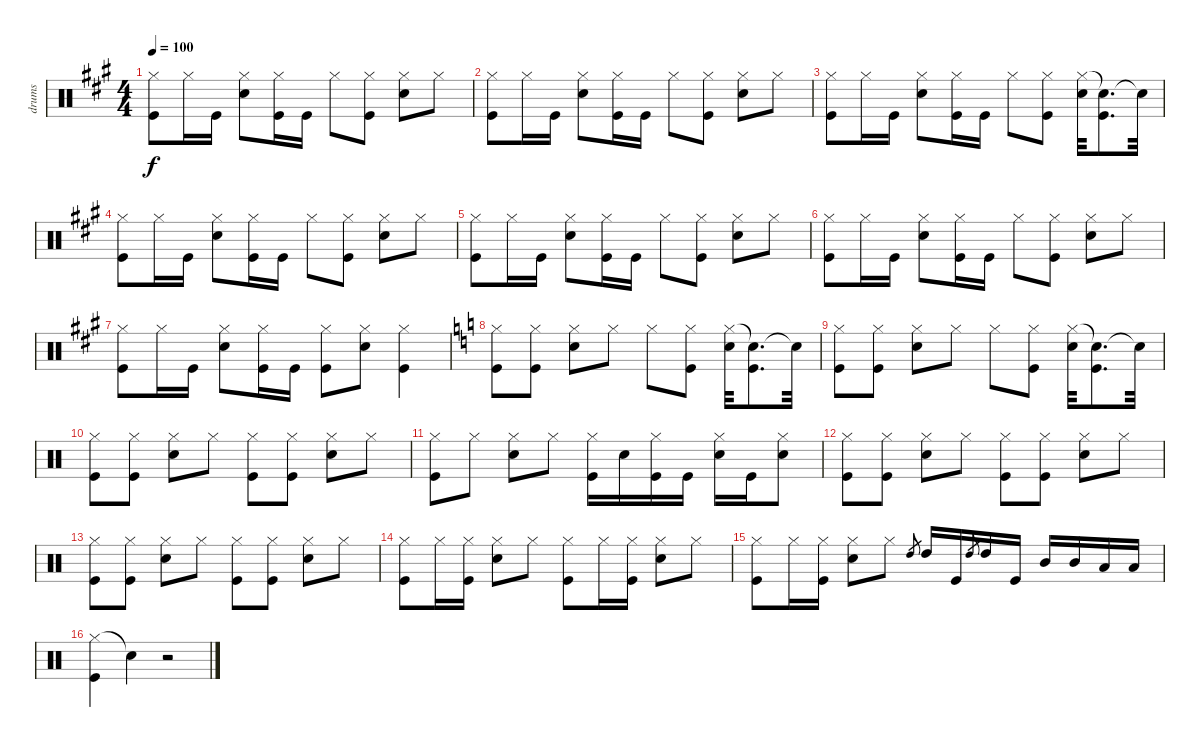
\track ("drums" "drums") {instrument percussion}
\staff {score}
\articulation defaults
\ts (4 4)
\tempo 100
\clef neutral
\ks f#minor
("Hi-Hat (closed)" "Kick (hit)").8{dy f} "Hi-Hat (closed)".16 "Kick (hit)".16 ("Hi-Hat (closed)" "Snare (hit) 2").8 ("Hi-Hat (closed)" "Kick (hit)").16 "Kick (hit)".16 "Hi-Hat (closed)".8 ("Hi-Hat (closed)" "Kick (hit)").8 ("Hi-Hat (closed)" "Snare (hit) 2").8 "Hi-Hat (closed)".8 |
("Hi-Hat (closed)" "Kick (hit)").8 "Hi-Hat (closed)".16 "Kick (hit)".16 ("Hi-Hat (closed)" "Snare (hit) 2").8 ("Hi-Hat (closed)" "Kick (hit)").16 "Kick (hit)".16 "Hi-Hat (closed)".8 ("Hi-Hat (closed)" "Kick (hit)").8 ("Hi-Hat (closed)" "Snare (hit) 2").8 "Hi-Hat (closed)".8 |
("Hi-Hat (closed)" "Kick (hit)").8 "Hi-Hat (closed)".16 "Kick (hit)".16 ("Hi-Hat (closed)" "Snare (hit) 2").8 ("Hi-Hat (closed)" "Kick (hit)").16 "Kick (hit)".16 "Hi-Hat (closed)".8 ("Hi-Hat (closed)" "Kick (hit)").8 ("Hi-Hat (closed)" "Snare (hit) 2").32 ("Snare (hit)"{t} "Kick (hit)").8{d} "Snare (hit)"{t}.32 |
("Hi-Hat (closed)" "Kick (hit)").8 "Hi-Hat (closed)".16 "Kick (hit)".16 ("Hi-Hat (closed)" "Snare (hit) 2").8 ("Hi-Hat (closed)" "Kick (hit)").16 "Kick (hit)".16 "Hi-Hat (closed)".8 ("Hi-Hat (closed)" "Kick (hit)").8 ("Hi-Hat (closed)" "Snare (hit) 2").8 "Hi-Hat (closed)".8 |
("Hi-Hat (closed)" "Kick (hit)").8 "Hi-Hat (closed)".16 "Kick (hit)".16 ("Hi-Hat (closed)" "Snare (hit) 2").8 ("Hi-Hat (closed)" "Kick (hit)").16 "Kick (hit)".16 "Hi-Hat (closed)".8 ("Hi-Hat (closed)" "Kick (hit)").8 ("Hi-Hat (closed)" "Snare (hit) 2").8 "Hi-Hat (closed)".8 |
("Hi-Hat (closed)" "Kick (hit)").8 "Hi-Hat (closed)".16 "Kick (hit)".16 ("Hi-Hat (closed)" "Snare (hit) 2").8 ("Hi-Hat (closed)" "Kick (hit)").16 "Kick (hit)".16 "Hi-Hat (closed)".8 ("Hi-Hat (closed)" "Kick (hit)").8 ("Hi-Hat (closed)" "Snare (hit) 2").8 "Hi-Hat (closed)".8 |
("Hi-Hat (closed)" "Kick (hit)").8 "Hi-Hat (closed)".16 "Kick (hit)".16 ("Hi-Hat (closed)" "Snare (hit) 2").8 ("Hi-Hat (closed)" "Kick (hit)").16 "Kick (hit)".16 ("Hi-Hat (closed)" "Kick (hit)").8 ("Hi-Hat (closed)" "Snare (hit) 2").8 ("Hi-Hat (closed)" "Kick (hit)").4 |
\ks aminor
("Hi-Hat (closed)" "Kick (hit)").8 ("Hi-Hat (closed)" "Kick (hit)").8 ("Hi-Hat (closed)" "Snare (hit) 2").8 "Hi-Hat (closed)".8 "Hi-Hat (closed)".8 ("Hi-Hat (closed)" "Kick (hit)").8 ("Hi-Hat (closed)" "Snare (hit) 2").32 ("Snare (hit)"{t} "Kick (hit)").8{d} "Snare (hit)"{t}.32 |
("Hi-Hat (closed)" "Kick (hit)").8 ("Hi-Hat (closed)" "Kick (hit)").8 ("Hi-Hat (closed)" "Snare (hit) 2").8 "Hi-Hat (closed)".8 "Hi-Hat (closed)".8 ("Hi-Hat (closed)" "Kick (hit)").8 ("Hi-Hat (closed)" "Snare (hit) 2").32 ("Snare (hit)"{t} "Kick (hit)").8{d} "Snare (hit)"{t}.32 |
("Hi-Hat (closed)" "Kick (hit)").8 ("Hi-Hat (closed)" "Kick (hit)").8 ("Hi-Hat (closed)" "Snare (hit) 2").8 "Hi-Hat (closed)".8 ("Hi-Hat (closed)" "Kick (hit)").8 ("Hi-Hat (closed)" "Kick (hit)").8 ("Hi-Hat (closed)" "Snare (hit) 2").8 "Hi-Hat (closed)".8 |
("Hi-Hat (closed)" "Kick (hit)").8 "Hi-Hat (closed)".8 ("Hi-Hat (closed)" "Snare (hit) 2").8 "Hi-Hat (closed)".8 ("Hi-Hat (closed)" "Kick (hit)").16 "Snare (hit) 2".16 ("Hi-Hat (closed)" "Kick (hit)").16 "Kick (hit)".16 ("Hi-Hat (closed)" "Snare (hit) 2").16 "Kick (hit)".16 ("Hi-Hat (closed)" "Snare (hit) 2").8 |
("Hi-Hat (closed)" "Kick (hit)").8 ("Hi-Hat (closed)" "Kick (hit)").8 ("Hi-Hat (closed)" "Snare (hit) 2").8 "Hi-Hat (closed)".8 ("Hi-Hat (closed)" "Kick (hit)").8 ("Hi-Hat (closed)" "Kick (hit)").8 ("Hi-Hat (closed)" "Snare (hit) 2").8 "Hi-Hat (closed)".8 |
("Hi-Hat (closed)" "Kick (hit)").8 ("Hi-Hat (closed)" "Kick (hit)").8 ("Hi-Hat (closed)" "Snare (hit) 2").8 "Hi-Hat (closed)".8 ("Hi-Hat (closed)" "Kick (hit)").8 ("Hi-Hat (closed)" "Kick (hit)").8 ("Hi-Hat (closed)" "Snare (hit) 2").8 "Hi-Hat (closed)".8 |
("Hi-Hat (closed)" "Kick (hit)").8 "Hi-Hat (closed)".16 ("Hi-Hat (closed)" "Kick (hit)").16 ("Hi-Hat (closed)" "Snare (hit) 2").8 "Hi-Hat (closed)".8 ("Hi-Hat (closed)" "Kick (hit)").8 "Hi-Hat (closed)".16 ("Hi-Hat (closed)" "Kick (hit)").16 ("Hi-Hat (closed)" "Snare (hit) 2").8 "Hi-Hat (closed)".8 |
("Hi-Hat (closed)" "Kick (hit)").8 "Hi-Hat (closed)".16 ("Hi-Hat (closed)" "Kick (hit)").16 ("Hi-Hat (closed)" "Snare (hit) 2").8 "Hi-Hat (closed)".8 "High Tom (hit)".8{gr} "High Tom (hit)".16 "Kick (hit)".16 "High Tom (hit)".8{gr} "High Tom (hit)".16 "Kick (hit)".16 "Mid Tom (hit)".16 "Mid Tom (hit)".16 "Low Tom (hit)".16 "Low Tom (hit)".16 |
("Hi-Hat (closed)" "Kick (hit)").4 "Snare (hit)"{t}.4 r.2
